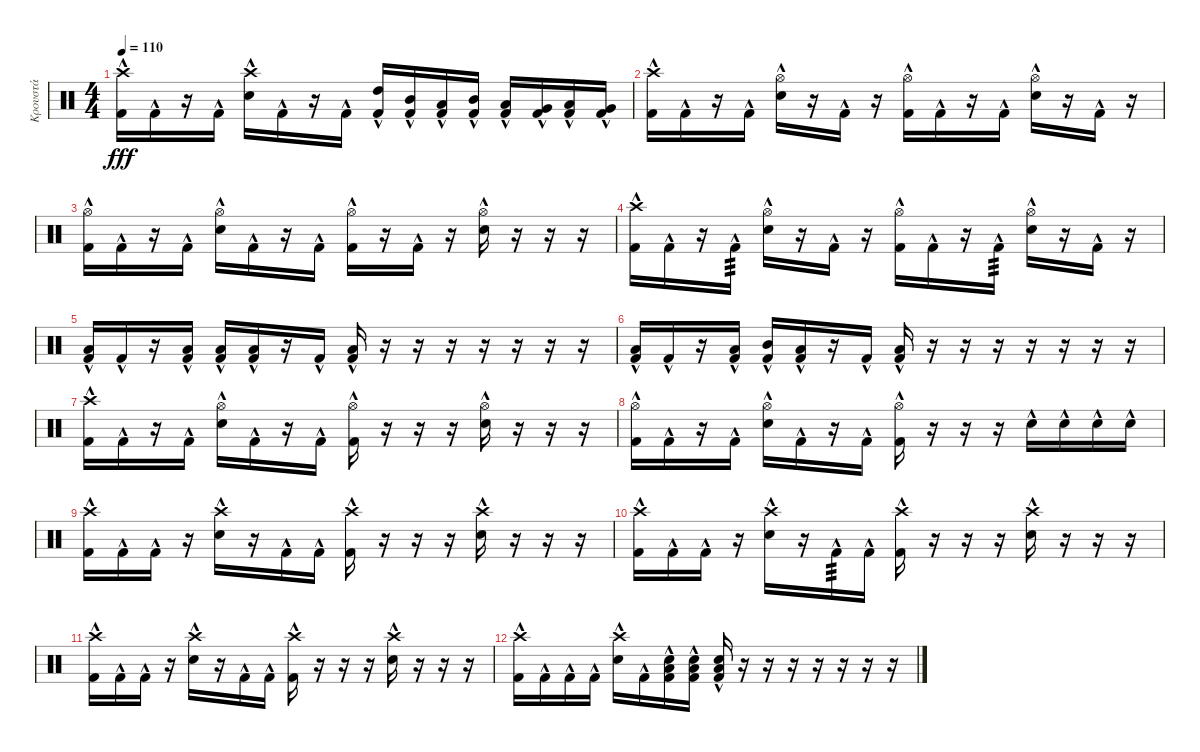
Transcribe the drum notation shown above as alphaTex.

\track ("Κρουστά" "Κρουστά") {instrument percussion}
\staff {score}
\articulation defaults
\ts (4 4)
\tempo 110
\clef neutral
\ks c
("Crash high (hit)" "Kick (hit) 2"{hac}).16{dy fff} "Kick (hit) 2"{hac}.16 r.16 "Kick (hit) 2"{hac}.16 ("Crash high (hit)" "Electric Snare (hit)"{hac}).16 "Kick (hit) 2"{hac}.16 r.16 "Kick (hit) 2"{hac}.16 ("High Tom (hit)" "Kick (hit) 2"{hac}).16 ("Mid Tom (hit)" "Kick (hit) 2"{hac}).16 ("Low Tom (hit)" "Kick (hit) 2"{hac}).16 ("Mid Tom (hit)" "Kick (hit) 2"{hac}).16 ("Low Tom (hit)" "Kick (hit) 2"{hac}).16 ("Very Low Tom (hit)" "Kick (hit) 2"{hac}).16 ("Low Tom (hit)" "Kick (hit) 2"{hac}).16 ("Very Low Tom (hit)" "Kick (hit) 2"{hac}).16 |
("Crash high (hit)" "Kick (hit) 2"{hac}).16 "Kick (hit) 2"{hac}.16 r.16 "Kick (hit) 2"{hac}.16 ("Hi-Hat (open)" "Electric Snare (hit)"{hac}).16 r.16 "Kick (hit) 2"{hac}.16 r.16 ("Hi-Hat (open)" "Kick (hit) 2"{hac}).16 "Kick (hit) 2"{hac}.16 r.16 "Kick (hit) 2"{hac}.16 ("Hi-Hat (open)" "Electric Snare (hit)"{hac}).16 r.16 "Kick (hit) 2"{hac}.16 r.16 |
("Hi-Hat (open)" "Kick (hit) 2"{hac}).16 "Kick (hit) 2"{hac}.16 r.16 "Kick (hit) 2"{hac}.16 ("Hi-Hat (open)" "Electric Snare (hit)"{hac}).16 "Kick (hit) 2"{hac}.16 r.16 "Kick (hit) 2"{hac}.16 ("Hi-Hat (open)" "Kick (hit) 2"{hac}).16 r.16 "Kick (hit) 2"{hac}.16 r.16 ("Hi-Hat (open)" "Electric Snare (hit)"{hac}).16 r.16 r.16 r.16 |
("Crash high (hit)" "Kick (hit) 2"{hac}).16 "Kick (hit) 2"{hac}.16 r.16 "Kick (hit) 2"{hac}.16{tp 3} ("Hi-Hat (open)" "Electric Snare (hit)"{hac}).16 r.16 "Kick (hit) 2"{hac}.16 r.16 ("Hi-Hat (open)" "Kick (hit) 2"{hac}).16 "Kick (hit) 2"{hac}.16 r.16 "Kick (hit) 2"{hac}.16{tp 3} ("Hi-Hat (open)" "Electric Snare (hit)"{hac}).16 r.16 "Kick (hit) 2"{hac}.16 r.16 |
("Low Tom (hit)" "Kick (hit) 2"{hac}).16 "Kick (hit) 2"{hac}.16 r.16 ("Low Tom (hit)" "Kick (hit) 2"{hac}).16 ("Low Tom (hit)" "Kick (hit) 2"{hac}).16 ("Low Tom (hit)" "Kick (hit) 2"{hac}).16 r.16 "Kick (hit) 2"{hac}.16 ("Low Tom (hit)" "Kick (hit) 2"{hac}).16 r.16 r.16 r.16 r.16 r.16 r.16 r.16 |
("Low Tom (hit)" "Kick (hit) 2"{hac}).16 "Kick (hit) 2"{hac}.16 r.16 ("Low Tom (hit)" "Kick (hit) 2"{hac}).16 ("Mid Tom (hit)" "Kick (hit) 2"{hac}).16 ("Low Tom (hit)" "Kick (hit) 2"{hac}).16 r.16 "Kick (hit) 2"{hac}.16 ("Low Tom (hit)" "Kick (hit) 2"{hac}).16 r.16 r.16 r.16 r.16 r.16 r.16 r.16 |
("Crash high (hit)" "Kick (hit) 2"{hac}).16 "Kick (hit) 2"{hac}.16 r.16 "Kick (hit) 2"{hac}.16 ("Hi-Hat (open)" "Electric Snare (hit)"{hac}).16 "Kick (hit) 2"{hac}.16 r.16 "Kick (hit) 2"{hac}.16 ("Hi-Hat (open)" "Kick (hit) 2"{hac}).16 r.16 r.16 r.16 ("Hi-Hat (open)" "Electric Snare (hit)"{hac}).16 r.16 r.16 r.16 |
("Hi-Hat (open)" "Kick (hit) 2"{hac}).16 "Kick (hit) 2"{hac}.16 r.16 "Kick (hit) 2"{hac}.16 ("Hi-Hat (open)" "Electric Snare (hit)"{hac}).16 "Kick (hit) 2"{hac}.16 r.16 "Kick (hit) 2"{hac}.16 ("Hi-Hat (open)" "Kick (hit) 2"{hac}).16 r.16 r.16 r.16 "Electric Snare (hit)"{hac}.16 "Electric Snare (hit)"{hac}.16 "Electric Snare (hit)"{hac}.16 "Electric Snare (hit)"{hac}.16 |
("Crash high (hit)" "Kick (hit) 2"{hac}).16 "Kick (hit) 2"{hac}.16 "Kick (hit) 2"{hac}.16 r.16 ("Crash high (hit)" "Electric Snare (hit)"{hac}).16 r.16 "Kick (hit) 2"{hac}.16 "Kick (hit) 2"{hac}.16 ("Crash high (hit)" "Kick (hit) 2"{hac}).16 r.16 r.16 r.16 ("Crash high (hit)" "Electric Snare (hit)"{hac}).16 r.16 r.16 r.16 |
("Crash high (hit)" "Kick (hit) 2"{hac}).16 "Kick (hit) 2"{hac}.16 "Kick (hit) 2"{hac}.16 r.16 ("Crash high (hit)" "Electric Snare (hit)"{hac}).16 r.16 "Kick (hit) 2"{hac}.16{tp 3} "Kick (hit) 2"{hac}.16 ("Crash high (hit)" "Kick (hit) 2"{hac}).16 r.16 r.16 r.16 ("Crash high (hit)" "Electric Snare (hit)"{hac}).16 r.16 r.16 r.16 |
("Crash high (hit)" "Kick (hit) 2"{hac}).16 "Kick (hit) 2"{hac}.16 "Kick (hit) 2"{hac}.16 r.16 ("Crash high (hit)" "Electric Snare (hit)"{hac}).16 r.16 "Kick (hit) 2"{hac}.16 "Kick (hit) 2"{hac}.16 ("Crash high (hit)" "Kick (hit) 2"{hac}).16 r.16 r.16 r.16 ("Crash high (hit)" "Electric Snare (hit)"{hac}).16 r.16 r.16 r.16 |
("Crash high (hit)" "Kick (hit) 2"{hac}).16 "Kick (hit) 2"{hac}.16 "Kick (hit) 2"{hac}.16 "Kick (hit) 2"{hac}.16 ("Crash high (hit)" "Electric Snare (hit)"{hac}).16 "Kick (hit) 2"{hac}.16 ("Electric Snare (hit)" "Low Tom (hit)" "Kick (hit) 2"{hac}).16 ("Electric Snare (hit)" "Low Tom (hit)" "Kick (hit) 2"{hac}).16 ("Electric Snare (hit)" "Low Tom (hit)" "Kick (hit) 2"{hac}).16 r.16 r.16 r.16 r.16 r.16 r.16 r.16
